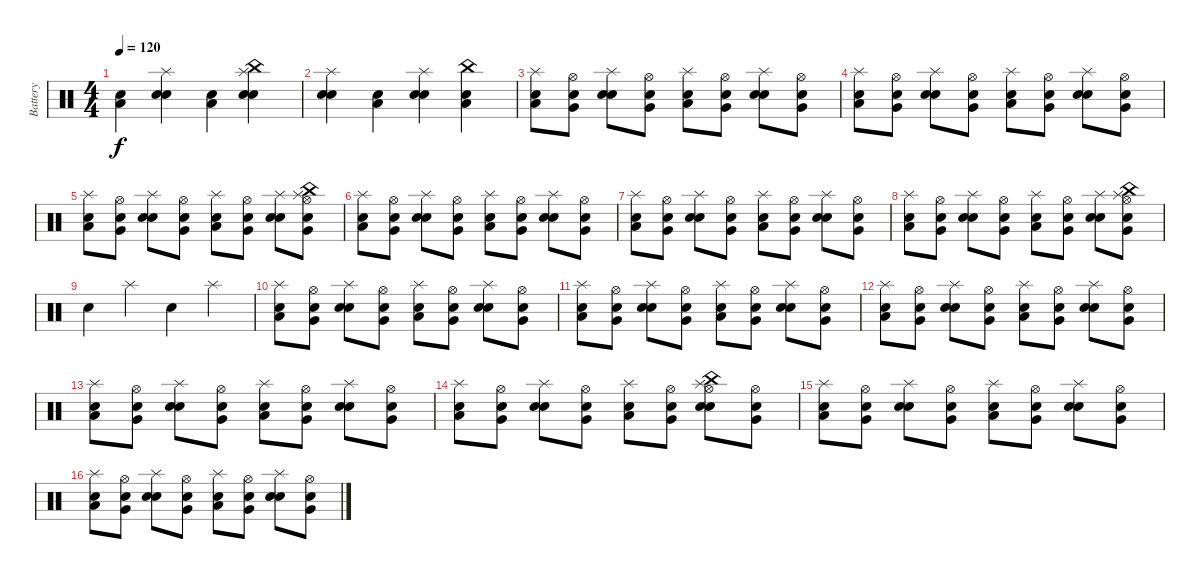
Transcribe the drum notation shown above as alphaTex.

\track ("Battery" "Battery") {instrument percussion}
\staff {score}
\articulation defaults
\ts (4 4)
\tempo 120
\clef neutral
\ks c
("Snare (hit) 2" "Low Floor Tom (hit)").4{dy f} ("Snare (hit) 2" "Electric Snare (hit)" "Splash (hit)").4 ("Snare (hit) 2" "Low Floor Tom (hit)").4 ("Snare (hit) 2" "Electric Snare (hit)" "Splash (hit)" "China (hit)").4 |
("Snare (hit) 2" "Electric Snare (hit)" "Splash (hit)").4 ("Snare (hit) 2" "Low Floor Tom (hit)").4 ("Snare (hit) 2" "Electric Snare (hit)" "Splash (hit)").4 ("Snare (hit) 2" "Low Floor Tom (hit)" "China (hit)").4 |
("Snare (hit) 2" "Low Floor Tom (hit)" "Splash (hit)").8 ("Snare (hit) 2" "Very Low Tom (hit)" "Hi-Hat (open)").8 ("Snare (hit) 2" "Electric Snare (hit)" "Splash (hit)").8 ("Snare (hit) 2" "Very Low Tom (hit)" "Hi-Hat (open)").8 ("Snare (hit) 2" "Low Floor Tom (hit)" "Splash (hit)").8 ("Snare (hit) 2" "Very Low Tom (hit)" "Hi-Hat (open)").8 ("Snare (hit) 2" "Electric Snare (hit)" "Splash (hit)").8 ("Snare (hit) 2" "Very Low Tom (hit)" "Hi-Hat (open)").8 |
("Snare (hit) 2" "Low Floor Tom (hit)" "Splash (hit)").8 ("Snare (hit) 2" "Very Low Tom (hit)" "Hi-Hat (open)").8 ("Snare (hit) 2" "Electric Snare (hit)" "Splash (hit)").8 ("Snare (hit) 2" "Very Low Tom (hit)" "Hi-Hat (open)").8 ("Snare (hit) 2" "Low Floor Tom (hit)" "Splash (hit)").8 ("Snare (hit) 2" "Very Low Tom (hit)" "Hi-Hat (open)").8 ("Snare (hit) 2" "Electric Snare (hit)" "Splash (hit)").8 ("Snare (hit) 2" "Very Low Tom (hit)" "Hi-Hat (open)").8 |
("Snare (hit) 2" "Low Floor Tom (hit)" "Splash (hit)").8 ("Snare (hit) 2" "Very Low Tom (hit)" "Hi-Hat (open)").8 ("Snare (hit) 2" "Electric Snare (hit)" "Splash (hit)").8 ("Snare (hit) 2" "Very Low Tom (hit)" "Hi-Hat (open)").8 ("Snare (hit) 2" "Low Floor Tom (hit)" "Splash (hit)").8 ("Snare (hit) 2" "Very Low Tom (hit)" "Hi-Hat (open)").8 ("Snare (hit) 2" "Electric Snare (hit)" "Splash (hit)").8 ("Snare (hit) 2" "Very Low Tom (hit)" "Splash (hit)" "Hi-Hat (open)" "China (hit)").8 |
("Snare (hit) 2" "Low Floor Tom (hit)" "Splash (hit)").8 ("Snare (hit) 2" "Very Low Tom (hit)" "Hi-Hat (open)").8 ("Snare (hit) 2" "Electric Snare (hit)" "Splash (hit)").8 ("Snare (hit) 2" "Very Low Tom (hit)" "Hi-Hat (open)").8 ("Snare (hit) 2" "Low Floor Tom (hit)" "Splash (hit)").8 ("Snare (hit) 2" "Very Low Tom (hit)" "Hi-Hat (open)").8 ("Snare (hit) 2" "Electric Snare (hit)" "Splash (hit)").8 ("Snare (hit) 2" "Very Low Tom (hit)" "Hi-Hat (open)").8 |
("Snare (hit) 2" "Low Floor Tom (hit)" "Splash (hit)").8 ("Snare (hit) 2" "Very Low Tom (hit)" "Hi-Hat (open)").8 ("Snare (hit) 2" "Electric Snare (hit)" "Splash (hit)").8 ("Snare (hit) 2" "Very Low Tom (hit)" "Hi-Hat (open)").8 ("Snare (hit) 2" "Low Floor Tom (hit)" "Splash (hit)").8 ("Snare (hit) 2" "Very Low Tom (hit)" "Hi-Hat (open)").8 ("Snare (hit) 2" "Electric Snare (hit)" "Splash (hit)").8 ("Snare (hit) 2" "Very Low Tom (hit)" "Hi-Hat (open)").8 |
("Snare (hit) 2" "Low Floor Tom (hit)" "Splash (hit)").8 ("Snare (hit) 2" "Very Low Tom (hit)" "Hi-Hat (open)").8 ("Snare (hit) 2" "Electric Snare (hit)" "Splash (hit)").8 ("Snare (hit) 2" "Very Low Tom (hit)" "Hi-Hat (open)").8 ("Snare (hit) 2" "Low Floor Tom (hit)" "Splash (hit)").8 ("Snare (hit) 2" "Very Low Tom (hit)" "Hi-Hat (open)").8 ("Snare (hit) 2" "Electric Snare (hit)" "Splash (hit)").8 ("Snare (hit) 2" "Very Low Tom (hit)" "Splash (hit)" "Hi-Hat (open)" "China (hit)").8 |
"Snare (hit)".4 "Splash (hit)".4 "Snare (hit)".4 "Splash (hit)".4 |
("Snare (hit) 2" "Low Floor Tom (hit)" "Splash (hit)").8 ("Snare (hit) 2" "Very Low Tom (hit)" "Hi-Hat (open)").8 ("Snare (hit) 2" "Electric Snare (hit)" "Splash (hit)").8 ("Snare (hit) 2" "Very Low Tom (hit)" "Hi-Hat (open)").8 ("Snare (hit) 2" "Low Floor Tom (hit)" "Splash (hit)").8 ("Snare (hit) 2" "Very Low Tom (hit)" "Hi-Hat (open)").8 ("Snare (hit) 2" "Electric Snare (hit)" "Splash (hit)").8 ("Snare (hit) 2" "Very Low Tom (hit)" "Hi-Hat (open)").8 |
("Snare (hit) 2" "Low Floor Tom (hit)" "Splash (hit)").8 ("Snare (hit) 2" "Very Low Tom (hit)" "Hi-Hat (open)").8 ("Snare (hit) 2" "Electric Snare (hit)" "Splash (hit)").8 ("Snare (hit) 2" "Very Low Tom (hit)" "Hi-Hat (open)").8 ("Snare (hit) 2" "Low Floor Tom (hit)" "Splash (hit)").8 ("Snare (hit) 2" "Very Low Tom (hit)" "Hi-Hat (open)").8 ("Snare (hit) 2" "Electric Snare (hit)" "Splash (hit)").8 ("Snare (hit) 2" "Very Low Tom (hit)" "Hi-Hat (open)").8 |
("Snare (hit) 2" "Low Floor Tom (hit)" "Splash (hit)").8 ("Snare (hit) 2" "Very Low Tom (hit)" "Hi-Hat (open)").8 ("Snare (hit) 2" "Electric Snare (hit)" "Splash (hit)").8 ("Snare (hit) 2" "Very Low Tom (hit)" "Hi-Hat (open)").8 ("Snare (hit) 2" "Low Floor Tom (hit)" "Splash (hit)").8 ("Snare (hit) 2" "Very Low Tom (hit)" "Hi-Hat (open)").8 ("Snare (hit) 2" "Electric Snare (hit)" "Splash (hit)").8 ("Snare (hit) 2" "Very Low Tom (hit)" "Hi-Hat (open)").8 |
("Snare (hit) 2" "Low Floor Tom (hit)" "Splash (hit)").8 ("Snare (hit) 2" "Very Low Tom (hit)" "Hi-Hat (open)").8 ("Snare (hit) 2" "Electric Snare (hit)" "Splash (hit)").8 ("Snare (hit) 2" "Very Low Tom (hit)" "Hi-Hat (open)").8 ("Snare (hit) 2" "Low Floor Tom (hit)" "Splash (hit)").8 ("Snare (hit) 2" "Very Low Tom (hit)" "Hi-Hat (open)").8 ("Snare (hit) 2" "Electric Snare (hit)" "Splash (hit)").8 ("Snare (hit) 2" "Very Low Tom (hit)" "Hi-Hat (open)").8 |
("Snare (hit) 2" "Low Floor Tom (hit)" "Splash (hit)").8 ("Snare (hit) 2" "Very Low Tom (hit)" "Hi-Hat (open)").8 ("Snare (hit) 2" "Electric Snare (hit)" "Splash (hit)").8 ("Snare (hit) 2" "Very Low Tom (hit)" "Hi-Hat (open)").8 ("Snare (hit) 2" "Low Floor Tom (hit)" "Splash (hit)").8 ("Snare (hit) 2" "Very Low Tom (hit)" "Hi-Hat (open)").8 ("Snare (hit) 2" "Electric Snare (hit)" "Splash (hit)" "Hi-Hat (open)" "China (hit)").8 ("Snare (hit) 2" "Very Low Tom (hit)" "Hi-Hat (open)").8 |
("Snare (hit) 2" "Low Floor Tom (hit)" "Splash (hit)").8 ("Snare (hit) 2" "Very Low Tom (hit)" "Hi-Hat (open)").8 ("Snare (hit) 2" "Electric Snare (hit)" "Splash (hit)").8 ("Snare (hit) 2" "Very Low Tom (hit)" "Hi-Hat (open)").8 ("Snare (hit) 2" "Low Floor Tom (hit)" "Splash (hit)").8 ("Snare (hit) 2" "Very Low Tom (hit)" "Hi-Hat (open)").8 ("Snare (hit) 2" "Electric Snare (hit)" "Splash (hit)").8 ("Snare (hit) 2" "Very Low Tom (hit)" "Hi-Hat (open)").8 |
("Snare (hit) 2" "Low Floor Tom (hit)" "Splash (hit)").8 ("Snare (hit) 2" "Very Low Tom (hit)" "Hi-Hat (open)").8 ("Snare (hit) 2" "Electric Snare (hit)" "Splash (hit)").8 ("Snare (hit) 2" "Very Low Tom (hit)" "Hi-Hat (open)").8 ("Snare (hit) 2" "Low Floor Tom (hit)" "Splash (hit)").8 ("Snare (hit) 2" "Very Low Tom (hit)" "Hi-Hat (open)").8 ("Snare (hit) 2" "Electric Snare (hit)" "Splash (hit)").8 ("Snare (hit) 2" "Very Low Tom (hit)" "Hi-Hat (open)").8
